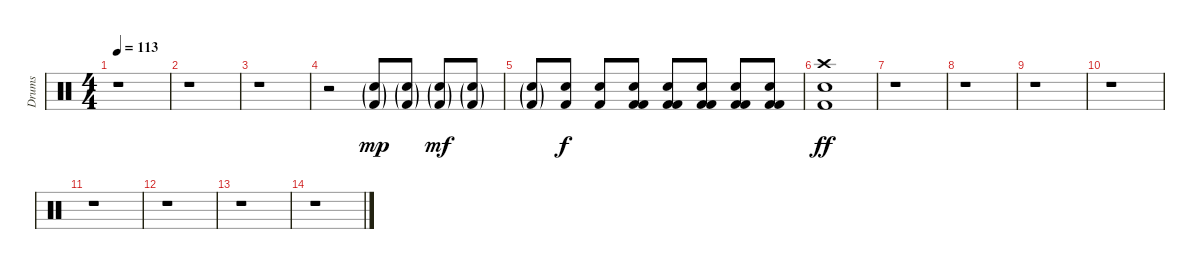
\track ("Drums" "Drums") {instrument percussion}
\staff {score}
\articulation defaults
\ts (4 4)
\tempo 113
\clef neutral
\ks c
r.1{dy f} |
r.1 |
r.1 |
r.2 ("Electric Snare (hit)"{g} "Kick (hit) 2"{g}).8{dy mp} ("Electric Snare (hit)"{g} "Kick (hit) 2"{g}).8 ("Electric Snare (hit)"{g} "Kick (hit) 2"{g}).8{dy mf} ("Electric Snare (hit)"{g} "Kick (hit) 2"{g}).8 |
("Electric Snare (hit)"{g} "Kick (hit) 2"{g}).8 ("Electric Snare (hit)" "Kick (hit) 2").8{dy f} ("Electric Snare (hit)" "Kick (hit) 2").8 ("Electric Snare (hit)" "Kick (hit) 2" "Kick (hit) 2").8 ("Electric Snare (hit)" "Kick (hit) 2" "Kick (hit) 2").8 ("Electric Snare (hit)" "Kick (hit) 2" "Kick (hit) 2").8 ("Electric Snare (hit)" "Kick (hit) 2" "Kick (hit) 2").8 ("Electric Snare (hit)" "Kick (hit) 2" "Kick (hit) 2").8 |
("Crash high (hit)" "Electric Snare (hit)" "Kick (hit) 2").1{dy ff} |
r.1 |
r.1 |
r.1 |
r.1 |
r.1 |
r.1 |
r.1 |
r.1
